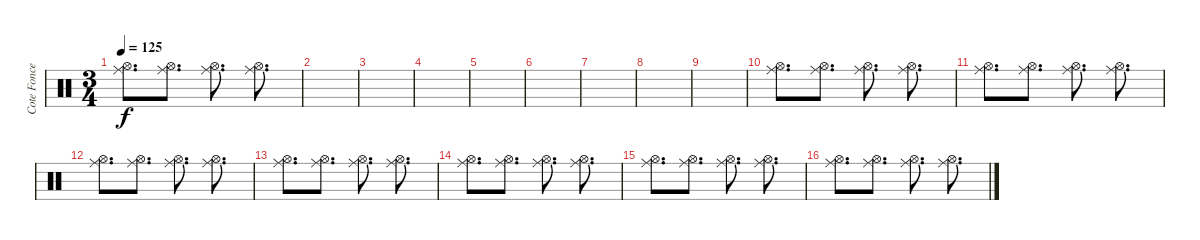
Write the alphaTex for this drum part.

\track ("Cote Foncea" "Cote Fonce") {instrument percussion}
\staff {score}
\articulation defaults
\ts (3 4)
\tempo 125
\clef neutral
\ks c
("Ride (middle)" "Hi-Hat (open)").8{d dy f} ("Ride (middle)" "Hi-Hat (open)").8{d} ("Ride (middle)" "Hi-Hat (open)").8{d} ("Ride (middle)" "Hi-Hat (open)").8{d} |
|
|
|
|
|
|
|
|
("Ride (middle)" "Hi-Hat (open)").8{d volume 14} ("Ride (middle)" "Hi-Hat (open)").8{d} ("Ride (middle)" "Hi-Hat (open)").8{d} ("Ride (middle)" "Hi-Hat (open)").8{d} |
("Ride (middle)" "Hi-Hat (open)").8{d} ("Ride (middle)" "Hi-Hat (open)").8{d} ("Ride (middle)" "Hi-Hat (open)").8{d} ("Ride (middle)" "Hi-Hat (open)").8{d} |
("Ride (middle)" "Hi-Hat (open)").8{d} ("Ride (middle)" "Hi-Hat (open)").8{d} ("Ride (middle)" "Hi-Hat (open)").8{d} ("Ride (middle)" "Hi-Hat (open)").8{d} |
("Ride (middle)" "Hi-Hat (open)").8{d} ("Ride (middle)" "Hi-Hat (open)").8{d} ("Ride (middle)" "Hi-Hat (open)").8{d} ("Ride (middle)" "Hi-Hat (open)").8{d} |
("Ride (middle)" "Hi-Hat (open)").8{d} ("Ride (middle)" "Hi-Hat (open)").8{d} ("Ride (middle)" "Hi-Hat (open)").8{d} ("Ride (middle)" "Hi-Hat (open)").8{d} |
("Ride (middle)" "Hi-Hat (open)").8{d} ("Ride (middle)" "Hi-Hat (open)").8{d} ("Ride (middle)" "Hi-Hat (open)").8{d} ("Ride (middle)" "Hi-Hat (open)").8{d} |
("Ride (middle)" "Hi-Hat (open)").8{d} ("Ride (middle)" "Hi-Hat (open)").8{d} ("Ride (middle)" "Hi-Hat (open)").8{d} ("Ride (middle)" "Hi-Hat (open)").8{d}
